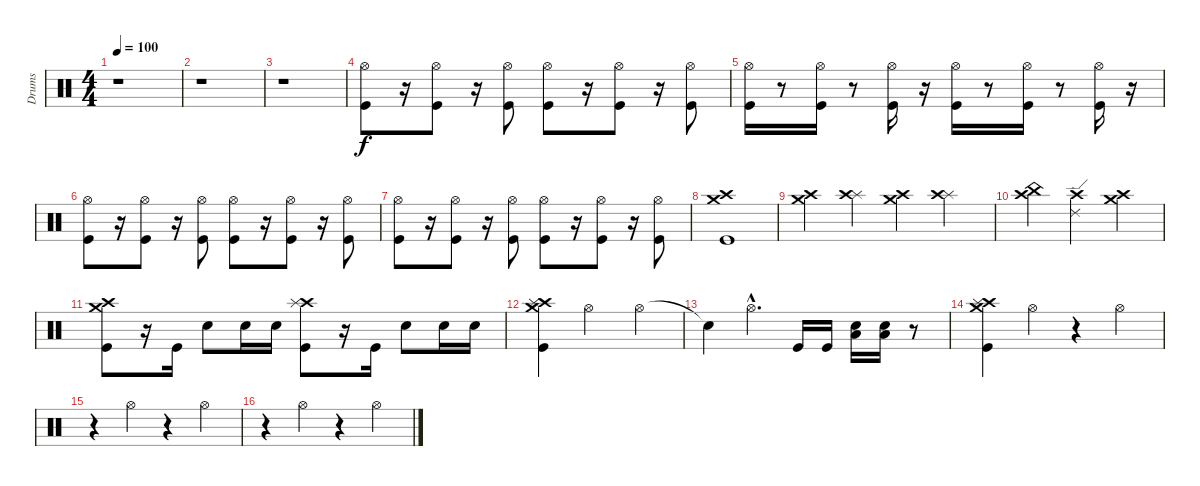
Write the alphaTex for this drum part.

\track ("Drums" "Drums") {instrument percussion}
\staff {score}
\articulation defaults
\ts (4 4)
\tempo 100
\clef neutral
\ks c
r.1{dy f} |
r.1 |
r.1 |
("Kick (hit)" "Hi-Hat (open)").8 r.16 ("Kick (hit)" "Hi-Hat (open)").8 r.16 ("Kick (hit)" "Hi-Hat (open)").8 ("Kick (hit)" "Hi-Hat (open)").8 r.16 ("Kick (hit)" "Hi-Hat (open)").8 r.16 ("Kick (hit)" "Hi-Hat (open)").8 |
("Kick (hit)" "Hi-Hat (open)").16 r.8 ("Kick (hit)" "Hi-Hat (open)").16 r.8 ("Kick (hit)" "Hi-Hat (open)").16 r.16 ("Kick (hit)" "Hi-Hat (open)").16 r.8 ("Kick (hit)" "Hi-Hat (open)").16 r.8 ("Kick (hit)" "Hi-Hat (open)").16 r.16 |
("Kick (hit)" "Hi-Hat (open)").8 r.16 ("Kick (hit)" "Hi-Hat (open)").8 r.16 ("Kick (hit)" "Hi-Hat (open)").8 ("Kick (hit)" "Hi-Hat (open)").8 r.16 ("Kick (hit)" "Hi-Hat (open)").8 r.16 ("Kick (hit)" "Hi-Hat (open)").8 |
("Kick (hit)" "Hi-Hat (open)").8 r.16 ("Kick (hit)" "Hi-Hat (open)").8 r.16 ("Kick (hit)" "Hi-Hat (open)").8 ("Kick (hit)" "Hi-Hat (open)").8 r.16 ("Kick (hit)" "Hi-Hat (open)").8 r.16 ("Kick (hit)" "Hi-Hat (open)").8 |
("Kick (hit)" "Crash medium (hit)" "Crash high (hit)").1 |
("Crash medium (hit)" "Crash high (hit)").4{volume 3} ("Splash (hit)" "Crash high (hit)").4{volume 3} ("Crash medium (hit)" "Crash high (hit)").4{volume 13} ("Splash (hit)" "Crash high (hit)").4{volume 3} |
("China (hit)" "Crash high (hit)").4{volume 13} ("Ride (edge) 2" "Crash high (hit)").2{volume 2} ("Crash high (hit)" "Crash medium (hit)").4{volume 3} |
("Kick (hit)" "Crash high (hit)" "Crash medium (hit)").8{volume 13} r.16 "Kick (hit)".16 "Electric Snare (hit)".8 "Electric Snare (hit)".16 "Electric Snare (hit)".16 ("Kick (hit)" "Crash high (hit)" "Splash (hit)").8 r.16 "Kick (hit)".16 "Electric Snare (hit)".8 "Electric Snare (hit)".16 "Electric Snare (hit)".16 |
("Kick (hit)" "Crash high (hit)" "Splash (hit)" "Crash medium (hit)").4 "Hi-Hat (open)".2 "Hi-Hat (open)".4 |
"Snare (hit)"{t}.4 "Hi-Hat (open)"{hac}.4{d} "Kick (hit)".16 "Kick (hit)".16 ("Electric Snare (hit)" "Low Floor Tom (hit)").16 ("Electric Snare (hit)" "Low Floor Tom (hit)").16 r.8 |
("Kick (hit)" "Crash high (hit)" "Crash medium (hit)" "Splash (hit)").4 "Hi-Hat (open)".4 r.4 "Hi-Hat (open)".4 |
r.4 "Hi-Hat (open)".4 r.4 "Hi-Hat (open)".4 |
r.4 "Hi-Hat (open)".4 r.4 "Hi-Hat (open)".4
